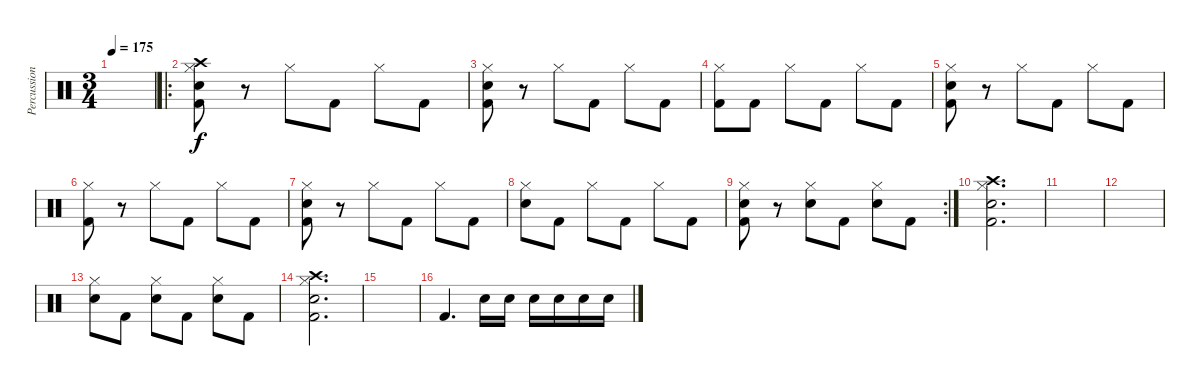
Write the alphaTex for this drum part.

\track ("Percussion" "Percussion") {instrument percussion}
\staff {score}
\articulation defaults
\ts (3 4)
\tempo 175
\clef neutral
\ks c
|
\ro
("Hi-Hat (closed)" "Crash high (hit)" "Electric Snare (hit)" "Kick (hit) 2").8 r.8 "Hi-Hat (closed)".8 "Kick (hit) 2".8 "Hi-Hat (closed)".8 "Kick (hit) 2".8 |
("Hi-Hat (closed)" "Electric Snare (hit)" "Kick (hit) 2").8 r.8 "Hi-Hat (closed)".8 "Kick (hit) 2".8 "Hi-Hat (closed)".8 "Kick (hit) 2".8 |
("Hi-Hat (closed)" "Kick (hit) 2").8 "Kick (hit) 2".8 "Hi-Hat (closed)".8 "Kick (hit) 2".8 "Hi-Hat (closed)".8 "Kick (hit) 2".8 |
("Hi-Hat (closed)" "Electric Snare (hit)" "Kick (hit) 2").8 r.8 "Hi-Hat (closed)".8 "Kick (hit) 2".8 "Hi-Hat (closed)".8 "Kick (hit) 2".8 |
("Hi-Hat (closed)" "Kick (hit) 2").8 r.8 "Hi-Hat (closed)".8 "Kick (hit) 2".8 "Hi-Hat (closed)".8 "Kick (hit) 2".8 |
("Hi-Hat (closed)" "Electric Snare (hit)" "Kick (hit) 2").8 r.8 "Hi-Hat (closed)".8 "Kick (hit) 2".8 "Hi-Hat (closed)".8 "Kick (hit) 2".8 |
("Hi-Hat (closed)" "Electric Snare (hit)").8 "Kick (hit) 2".8 "Hi-Hat (closed)".8 "Kick (hit) 2".8 "Hi-Hat (closed)".8 "Kick (hit) 2".8 |
\rc 2
("Hi-Hat (closed)" "Electric Snare (hit)" "Kick (hit) 2").8 r.8 ("Hi-Hat (closed)" "Electric Snare (hit)").8 "Kick (hit) 2".8 ("Hi-Hat (closed)" "Electric Snare (hit)").8 "Kick (hit) 2".8 |
("Hi-Hat (closed)" "Crash high (hit)" "Electric Snare (hit)" "Kick (hit) 2").2{d} |
|
|
("Hi-Hat (closed)" "Electric Snare (hit)").8 "Kick (hit) 2".8 ("Hi-Hat (closed)" "Electric Snare (hit)").8 "Kick (hit) 2".8 ("Hi-Hat (closed)" "Electric Snare (hit)").8 "Kick (hit) 2".8 |
("Hi-Hat (closed)" "Crash high (hit)" "Electric Snare (hit)" "Kick (hit) 2").2{d} |
|
"Kick (hit) 2".4{d} "Electric Snare (hit)".16 "Electric Snare (hit)".16 "Electric Snare (hit)".16 "Electric Snare (hit)".16 "Electric Snare (hit)".16 "Electric Snare (hit)".16
